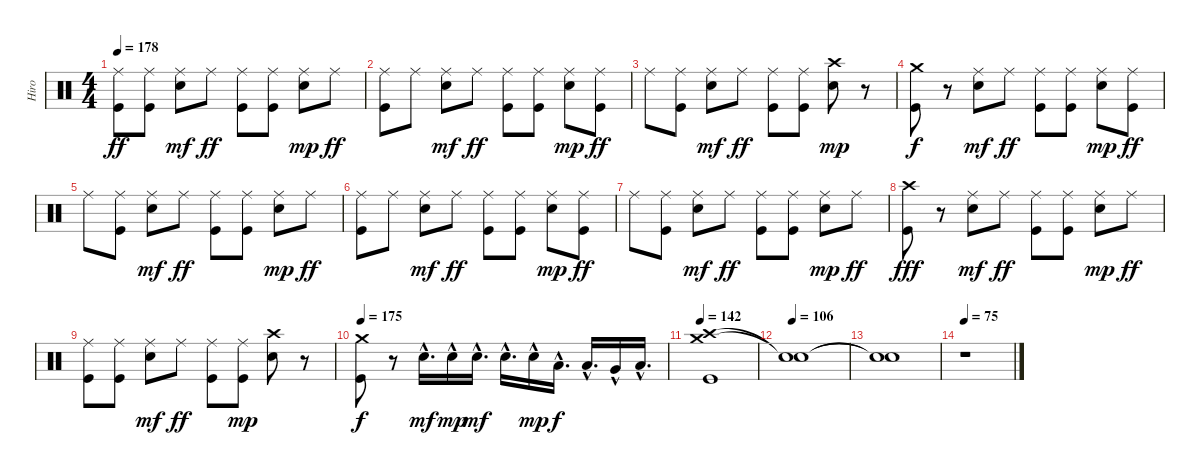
\track ("Hiro" "Hiro") {instrument percussion}
\staff {score}
\articulation defaults
\ts (4 4)
\tempo 178
\clef neutral
\ks c
("Ride (middle)" "Kick (hit)").8{dy ff} ("Ride (middle)" "Kick (hit)").8 ("Ride (middle)" "Electric Snare (hit)").8{dy mf} "Ride (middle)".8{dy ff} ("Ride (middle)" "Kick (hit)").8 ("Ride (middle)" "Kick (hit)").8 ("Ride (middle)" "Electric Snare (hit)").8{dy mp} "Ride (middle)".8{dy ff} |
("Ride (middle)" "Kick (hit)").8 "Ride (middle)".8 ("Ride (middle)" "Electric Snare (hit)").8{dy mf} "Ride (middle)".8{dy ff} ("Ride (middle)" "Kick (hit)").8 ("Ride (middle)" "Kick (hit)").8 ("Ride (middle)" "Electric Snare (hit)").8{dy mp} ("Ride (middle)" "Kick (hit)").8{dy ff} |
"Ride (middle)".8 ("Ride (middle)" "Kick (hit)").8 ("Ride (middle)" "Electric Snare (hit)").8{dy mf} "Ride (middle)".8{dy ff} ("Ride (middle)" "Kick (hit)").8 ("Ride (middle)" "Kick (hit)").8 ("Crash high (hit)" "Electric Snare (hit)").8{dy mp} r.8 |
("Crash medium (hit)" "Kick (hit)").8{dy f} r.8 ("Ride (middle)" "Electric Snare (hit)").8{dy mf} "Ride (middle)".8{dy ff} ("Ride (middle)" "Kick (hit)").8 ("Ride (middle)" "Kick (hit)").8 ("Ride (middle)" "Electric Snare (hit)").8{dy mp} ("Ride (middle)" "Kick (hit)").8{dy ff} |
"Ride (middle)".8 ("Ride (middle)" "Kick (hit)").8 ("Ride (middle)" "Electric Snare (hit)").8{dy mf} "Ride (middle)".8{dy ff} ("Ride (middle)" "Kick (hit)").8 ("Ride (middle)" "Kick (hit)").8 ("Ride (middle)" "Electric Snare (hit)").8{dy mp} "Ride (middle)".8{dy ff} |
("Ride (middle)" "Kick (hit)").8 "Ride (middle)".8 ("Ride (middle)" "Electric Snare (hit)").8{dy mf} "Ride (middle)".8{dy ff} ("Ride (middle)" "Kick (hit)").8 ("Ride (middle)" "Kick (hit)").8 ("Ride (middle)" "Electric Snare (hit)").8{dy mp} ("Ride (middle)" "Kick (hit)").8{dy ff} |
"Ride (middle)".8 ("Ride (middle)" "Kick (hit)").8 ("Ride (middle)" "Electric Snare (hit)").8{dy mf} "Ride (middle)".8{dy ff} ("Ride (middle)" "Kick (hit)").8 ("Ride (middle)" "Kick (hit)").8 ("Ride (middle)" "Electric Snare (hit)").8{dy mp} "Ride (middle)".8{dy ff} |
("Crash high (hit)" "Kick (hit)").8{dy fff} r.8 ("Ride (middle)" "Electric Snare (hit)").8{dy mf} "Ride (middle)".8{dy ff} ("Ride (middle)" "Kick (hit)").8 ("Ride (middle)" "Kick (hit)").8 ("Ride (middle)" "Electric Snare (hit)").8{dy mp} "Ride (middle)".8{dy ff} |
("Ride (middle)" "Kick (hit)").8 ("Ride (middle)" "Kick (hit)").8 ("Ride (middle)" "Electric Snare (hit)").8{dy mf} "Ride (middle)".8{dy ff} ("Ride (middle)" "Kick (hit)").8 ("Kick (hit)" "Ride (middle)").8{dy mp} ("Crash high (hit)" "Electric Snare (hit)").8 r.8 |
\tempo 175
("Crash medium (hit)" "Kick (hit)").8{dy f} r.8 "Electric Snare (hit)"{hac}.16{d dy mf} "Electric Snare (hit)"{hac}.16{dy mp} "Electric Snare (hit)"{hac}.16{d dy mf} "Electric Snare (hit)"{hac}.16{d} "Electric Snare (hit)"{hac}.16{dy mp} "Low Tom (hit)"{hac}.16{d dy f} "Low Tom (hit)"{hac}.16{d} "Very Low Tom (hit)"{hac}.16 "Low Floor Tom (hit)"{hac}.16{d} |
\tempo 142
("Crash medium (hit)" "Crash high (hit)" "Kick (hit)").1 |
\tempo 106
("Snare (hit)"{t} "Snare (hit)"{t}).1 |
("Snare (hit)"{t} "Snare (hit)"{t}).1 |
\tempo 75
r.1
